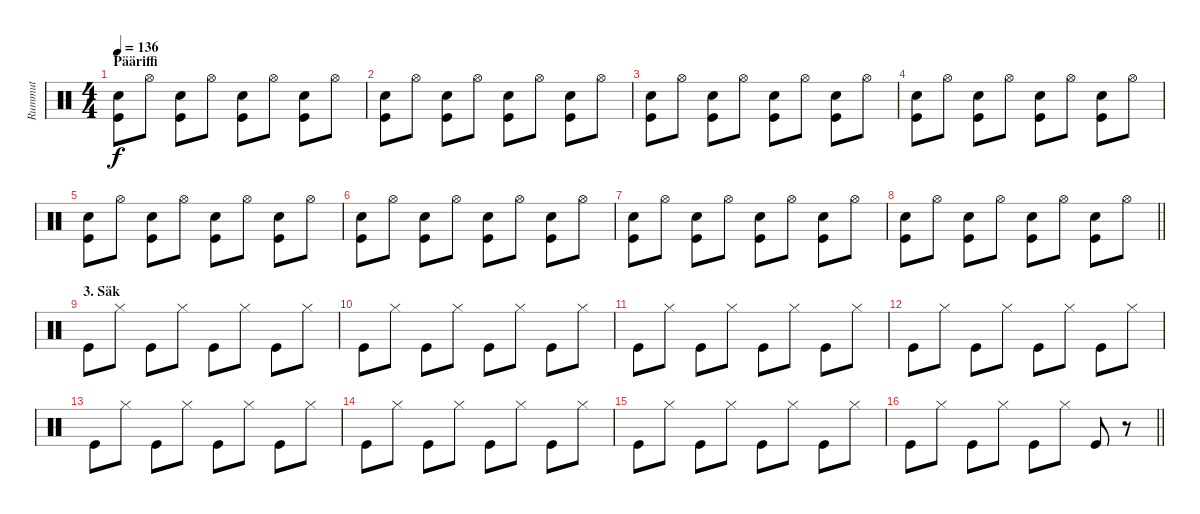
\track ("Rummut" "Rummut") {instrument percussion}
\staff {score}
\articulation defaults
\ts (4 4)
\section ("" "Pääriffi")
\tempo 136
\clef neutral
\ks c
("Electric Snare (hit)" "Kick (hit)").8{dy f} "Hi-Hat (open)".8 ("Electric Snare (hit)" "Kick (hit)").8 "Hi-Hat (open)".8 ("Electric Snare (hit)" "Kick (hit)").8 "Hi-Hat (open)".8 ("Electric Snare (hit)" "Kick (hit)").8 "Hi-Hat (open)".8 |
("Electric Snare (hit)" "Kick (hit)").8 "Hi-Hat (open)".8 ("Electric Snare (hit)" "Kick (hit)").8 "Hi-Hat (open)".8 ("Electric Snare (hit)" "Kick (hit)").8 "Hi-Hat (open)".8 ("Electric Snare (hit)" "Kick (hit)").8 "Hi-Hat (open)".8 |
("Electric Snare (hit)" "Kick (hit)").8 "Hi-Hat (open)".8 ("Electric Snare (hit)" "Kick (hit)").8 "Hi-Hat (open)".8 ("Electric Snare (hit)" "Kick (hit)").8 "Hi-Hat (open)".8 ("Electric Snare (hit)" "Kick (hit)").8 "Hi-Hat (open)".8 |
("Electric Snare (hit)" "Kick (hit)").8 "Hi-Hat (open)".8 ("Electric Snare (hit)" "Kick (hit)").8 "Hi-Hat (open)".8 ("Electric Snare (hit)" "Kick (hit)").8 "Hi-Hat (open)".8 ("Electric Snare (hit)" "Kick (hit)").8 "Hi-Hat (open)".8 |
("Electric Snare (hit)" "Kick (hit)").8 "Hi-Hat (open)".8 ("Electric Snare (hit)" "Kick (hit)").8 "Hi-Hat (open)".8 ("Electric Snare (hit)" "Kick (hit)").8 "Hi-Hat (open)".8 ("Electric Snare (hit)" "Kick (hit)").8 "Hi-Hat (open)".8 |
("Electric Snare (hit)" "Kick (hit)").8 "Hi-Hat (open)".8 ("Electric Snare (hit)" "Kick (hit)").8 "Hi-Hat (open)".8 ("Electric Snare (hit)" "Kick (hit)").8 "Hi-Hat (open)".8 ("Electric Snare (hit)" "Kick (hit)").8 "Hi-Hat (open)".8 |
("Electric Snare (hit)" "Kick (hit)").8 "Hi-Hat (open)".8 ("Electric Snare (hit)" "Kick (hit)").8 "Hi-Hat (open)".8 ("Electric Snare (hit)" "Kick (hit)").8 "Hi-Hat (open)".8 ("Electric Snare (hit)" "Kick (hit)").8 "Hi-Hat (open)".8 |
\barLineRight lightlight
("Electric Snare (hit)" "Kick (hit)").8 "Hi-Hat (open)".8 ("Electric Snare (hit)" "Kick (hit)").8 "Hi-Hat (open)".8 ("Electric Snare (hit)" "Kick (hit)").8 "Hi-Hat (open)".8 ("Electric Snare (hit)" "Kick (hit)").8 "Hi-Hat (open)".8 |
\section ("" "3. Säk")
"Kick (hit)".8 "Hi-Hat (closed)".8 "Kick (hit)".8 "Hi-Hat (closed)".8 "Kick (hit)".8 "Hi-Hat (closed)".8 "Kick (hit)".8 "Hi-Hat (closed)".8 |
"Kick (hit)".8 "Hi-Hat (closed)".8 "Kick (hit)".8 "Hi-Hat (closed)".8 "Kick (hit)".8 "Hi-Hat (closed)".8 "Kick (hit)".8 "Hi-Hat (closed)".8 |
"Kick (hit)".8 "Hi-Hat (closed)".8 "Kick (hit)".8 "Hi-Hat (closed)".8 "Kick (hit)".8 "Hi-Hat (closed)".8 "Kick (hit)".8 "Hi-Hat (closed)".8 |
"Kick (hit)".8 "Hi-Hat (closed)".8 "Kick (hit)".8 "Hi-Hat (closed)".8 "Kick (hit)".8 "Hi-Hat (closed)".8 "Kick (hit)".8 "Hi-Hat (closed)".8 |
"Kick (hit)".8 "Hi-Hat (closed)".8 "Kick (hit)".8 "Hi-Hat (closed)".8 "Kick (hit)".8 "Hi-Hat (closed)".8 "Kick (hit)".8 "Hi-Hat (closed)".8 |
"Kick (hit)".8 "Hi-Hat (closed)".8 "Kick (hit)".8 "Hi-Hat (closed)".8 "Kick (hit)".8 "Hi-Hat (closed)".8 "Kick (hit)".8 "Hi-Hat (closed)".8 |
"Kick (hit)".8 "Hi-Hat (closed)".8 "Kick (hit)".8 "Hi-Hat (closed)".8 "Kick (hit)".8 "Hi-Hat (closed)".8 "Kick (hit)".8 "Hi-Hat (closed)".8 |
\barLineRight lightlight "Kick (hit)".8 "Hi-Hat (closed)".8 "Kick (hit)".8 "Hi-Hat (closed)".8 "Kick (hit)".8 "Hi-Hat (closed)".8 "Kick (hit)".8
r.8
